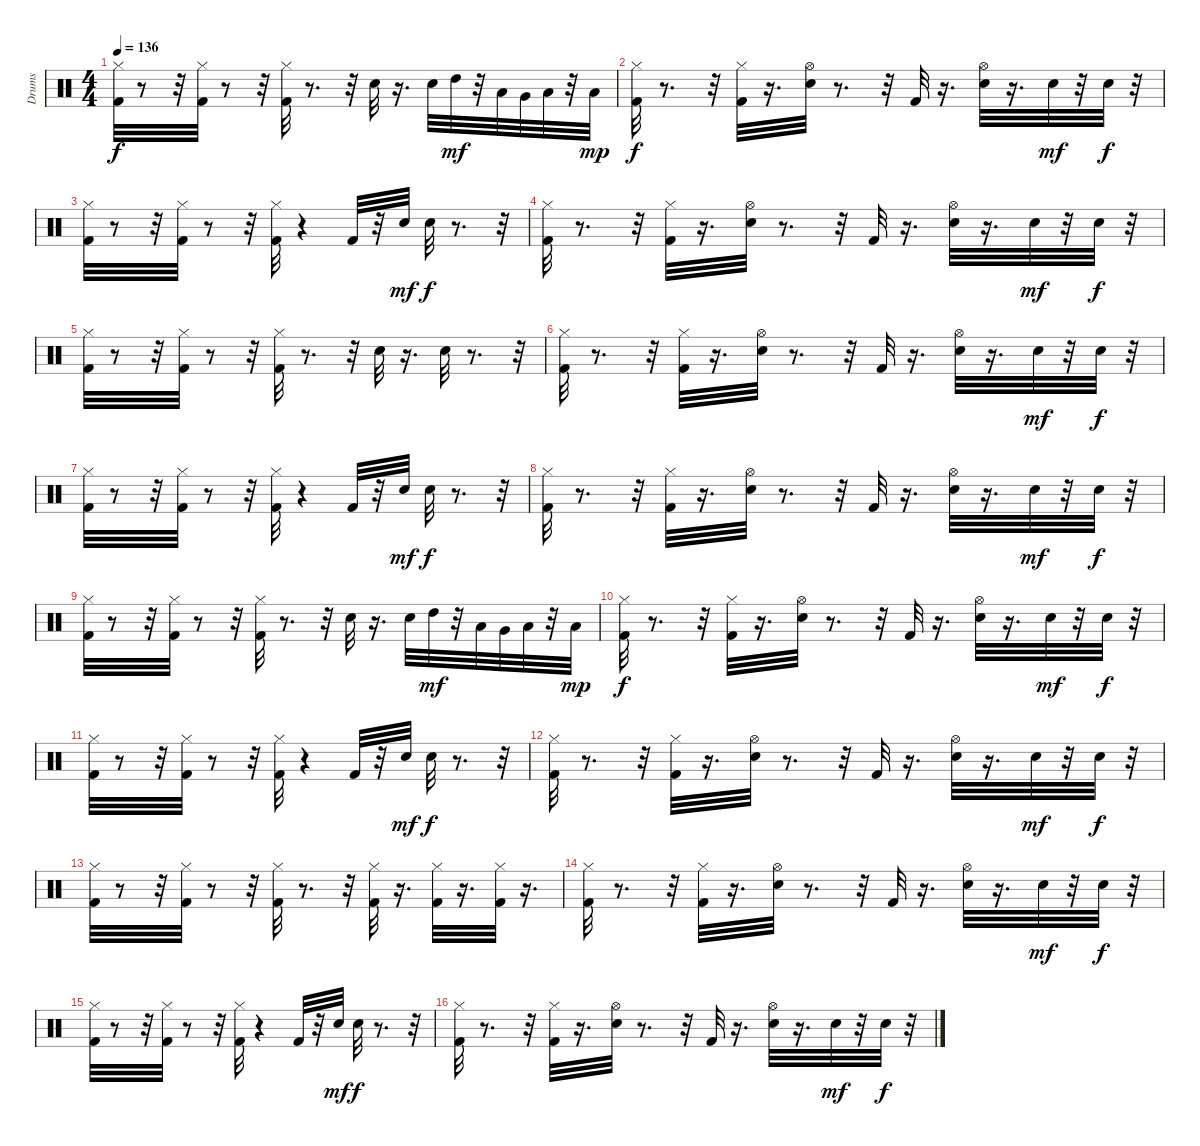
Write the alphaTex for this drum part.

\track ("Drums" "Drums") {instrument percussion}
\staff {score}
\articulation defaults
\ts (4 4)
\tempo 136
\clef neutral
\ks c
("Kick (hit) 2" "Hi-Hat (closed)").32{dy f} r.8 r.32 ("Kick (hit) 2" "Hi-Hat (closed)").32 r.8 r.32 ("Kick (hit) 2" "Hi-Hat (closed)").32 r.8{d} r.32 "Snare (hit) 2".32 r.16{d} "Snare (hit) 2".32 "High Tom (hit)".32{dy mf} r.32 "Low Tom (hit)".32 "Very Low Tom (hit)".32 "Low Floor Tom (hit)".32 r.32 "Low Floor Tom (hit)".32{dy mp} |
("Kick (hit) 2" "Hi-Hat (closed)").32{dy f} r.8{d} r.32 ("Kick (hit) 2" "Hi-Hat (closed)").32 r.16{d} ("Snare (hit) 2" "Hi-Hat (open)").32 r.8{d} r.32 "Kick (hit) 2".32 r.16{d} ("Snare (hit) 2" "Hi-Hat (open)").32 r.16{d} "Snare (hit) 2".32{dy mf} r.32 "Snare (hit) 2".32{dy f} r.32 |
("Kick (hit) 2" "Hi-Hat (closed)").32 r.8 r.32 ("Kick (hit) 2" "Hi-Hat (closed)").32 r.8 r.32 ("Kick (hit) 2" "Hi-Hat (closed)").32 r.4 "Kick (hit) 2".32 r.32 "Snare (hit) 2".32{dy mf} "Snare (hit) 2".32{dy f} r.8{d} r.32 |
("Kick (hit) 2" "Hi-Hat (closed)").32 r.8{d} r.32 ("Kick (hit) 2" "Hi-Hat (closed)").32 r.16{d} ("Snare (hit) 2" "Hi-Hat (open)").32 r.8{d} r.32 "Kick (hit) 2".32 r.16{d} ("Snare (hit) 2" "Hi-Hat (open)").32 r.16{d} "Snare (hit) 2".32{dy mf} r.32 "Snare (hit) 2".32{dy f} r.32 |
("Kick (hit) 2" "Hi-Hat (closed)").32 r.8 r.32 ("Kick (hit) 2" "Hi-Hat (closed)").32 r.8 r.32 ("Kick (hit) 2" "Hi-Hat (closed)").32 r.8{d} r.32 "Snare (hit) 2".32 r.16{d} "Snare (hit) 2".32 r.8{d} r.32 |
("Kick (hit) 2" "Hi-Hat (closed)").32 r.8{d} r.32 ("Kick (hit) 2" "Hi-Hat (closed)").32 r.16{d} ("Snare (hit) 2" "Hi-Hat (open)").32 r.8{d} r.32 "Kick (hit) 2".32 r.16{d} ("Snare (hit) 2" "Hi-Hat (open)").32 r.16{d} "Snare (hit) 2".32{dy mf} r.32 "Snare (hit) 2".32{dy f} r.32 |
("Kick (hit) 2" "Hi-Hat (closed)").32 r.8 r.32 ("Kick (hit) 2" "Hi-Hat (closed)").32 r.8 r.32 ("Kick (hit) 2" "Hi-Hat (closed)").32 r.4 "Kick (hit) 2".32 r.32 "Snare (hit) 2".32{dy mf} "Snare (hit) 2".32{dy f} r.8{d} r.32 |
("Kick (hit) 2" "Hi-Hat (closed)").32 r.8{d} r.32 ("Kick (hit) 2" "Hi-Hat (closed)").32 r.16{d} ("Snare (hit) 2" "Hi-Hat (open)").32 r.8{d} r.32 "Kick (hit) 2".32 r.16{d} ("Snare (hit) 2" "Hi-Hat (open)").32 r.16{d} "Snare (hit) 2".32{dy mf} r.32 "Snare (hit) 2".32{dy f} r.32 |
("Kick (hit) 2" "Hi-Hat (closed)").32 r.8 r.32 ("Kick (hit) 2" "Hi-Hat (closed)").32 r.8 r.32 ("Kick (hit) 2" "Hi-Hat (closed)").32 r.8{d} r.32 "Snare (hit) 2".32 r.16{d} "Snare (hit) 2".32 "High Tom (hit)".32{dy mf} r.32 "Low Tom (hit)".32 "Very Low Tom (hit)".32 "Low Floor Tom (hit)".32 r.32 "Low Floor Tom (hit)".32{dy mp} |
("Kick (hit) 2" "Hi-Hat (closed)").32{dy f} r.8{d} r.32 ("Kick (hit) 2" "Hi-Hat (closed)").32 r.16{d} ("Snare (hit) 2" "Hi-Hat (open)").32 r.8{d} r.32 "Kick (hit) 2".32 r.16{d} ("Snare (hit) 2" "Hi-Hat (open)").32 r.16{d} "Snare (hit) 2".32{dy mf} r.32 "Snare (hit) 2".32{dy f} r.32 |
("Kick (hit) 2" "Hi-Hat (closed)").32 r.8 r.32 ("Kick (hit) 2" "Hi-Hat (closed)").32 r.8 r.32 ("Kick (hit) 2" "Hi-Hat (closed)").32 r.4 "Kick (hit) 2".32 r.32 "Snare (hit) 2".32{dy mf} "Snare (hit) 2".32{dy f} r.8{d} r.32 |
("Kick (hit) 2" "Hi-Hat (closed)").32 r.8{d} r.32 ("Kick (hit) 2" "Hi-Hat (closed)").32 r.16{d} ("Snare (hit) 2" "Hi-Hat (open)").32 r.8{d} r.32 "Kick (hit) 2".32 r.16{d} ("Snare (hit) 2" "Hi-Hat (open)").32 r.16{d} "Snare (hit) 2".32{dy mf} r.32 "Snare (hit) 2".32{dy f} r.32 |
("Kick (hit) 2" "Hi-Hat (closed)").32 r.8 r.32 ("Kick (hit) 2" "Hi-Hat (closed)").32 r.8 r.32 ("Kick (hit) 2" "Hi-Hat (closed)").32 r.8{d} r.32 ("Kick (hit) 2" "Hi-Hat (closed)").32 r.16{d} ("Kick (hit) 2" "Hi-Hat (closed)").32 r.16{d} ("Kick (hit) 2" "Hi-Hat (closed)").32 r.16{d} |
("Kick (hit) 2" "Hi-Hat (closed)").32 r.8{d} r.32 ("Kick (hit) 2" "Hi-Hat (closed)").32 r.16{d} ("Snare (hit) 2" "Hi-Hat (open)").32 r.8{d} r.32 "Kick (hit) 2".32 r.16{d} ("Snare (hit) 2" "Hi-Hat (open)").32 r.16{d} "Snare (hit) 2".32{dy mf} r.32 "Snare (hit) 2".32{dy f} r.32 |
("Kick (hit) 2" "Hi-Hat (closed)").32 r.8 r.32 ("Kick (hit) 2" "Hi-Hat (closed)").32 r.8 r.32 ("Kick (hit) 2" "Hi-Hat (closed)").32 r.4 "Kick (hit) 2".32 r.32 "Snare (hit) 2".32{dy mf} "Snare (hit) 2".32{dy f} r.8{d} r.32 |
("Kick (hit) 2" "Hi-Hat (closed)").32 r.8{d} r.32 ("Kick (hit) 2" "Hi-Hat (closed)").32 r.16{d} ("Snare (hit) 2" "Hi-Hat (open)").32 r.8{d} r.32 "Kick (hit) 2".32 r.16{d} ("Snare (hit) 2" "Hi-Hat (open)").32 r.16{d} "Snare (hit) 2".32{dy mf} r.32 "Snare (hit) 2".32{dy f} r.32
